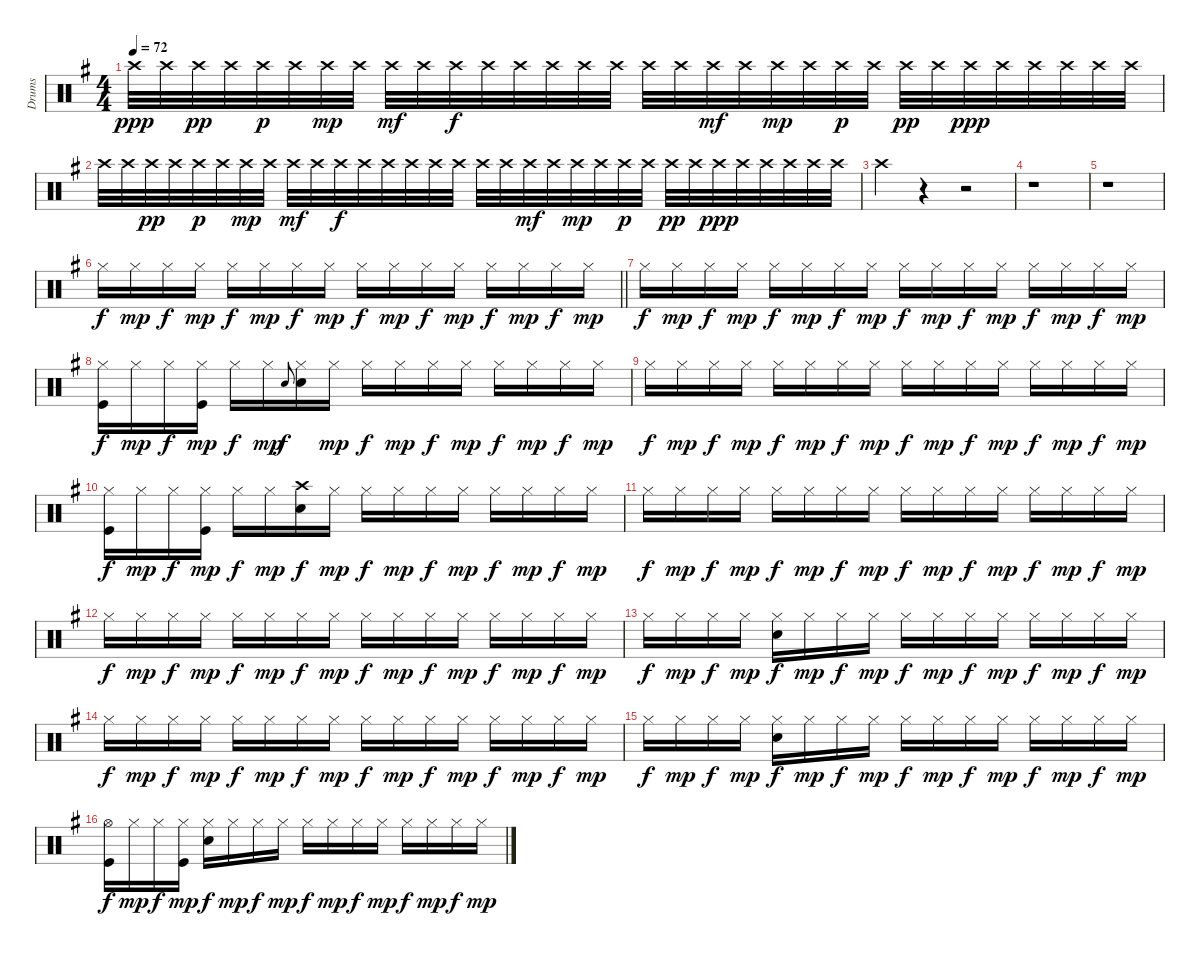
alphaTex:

\track ("Drums" "Drums") {instrument percussion}
\staff {score}
\articulation defaults
\ts (4 4)
\tempo 72
\clef neutral
\ks eminor "Crash high (hit)".32{dy ppp} "Crash high (hit)".32 "Crash high (hit)".32{dy pp} "Crash high (hit)".32 "Crash high (hit)".32{dy p} "Crash high (hit)".32 "Crash high (hit)".32{dy mp} "Crash high (hit)".32 "Crash high (hit)".32{dy mf} "Crash high (hit)".32 "Crash high (hit)".32{dy f} "Crash high (hit)".32 "Crash high (hit)".32 "Crash high (hit)".32 "Crash high (hit)".32 "Crash high (hit)".32 "Crash high (hit)".32 "Crash high (hit)".32 "Crash high (hit)".32{dy mf} "Crash high (hit)".32 "Crash high (hit)".32{dy mp} "Crash high (hit)".32 "Crash high (hit)".32{dy p} "Crash high (hit)".32 "Crash high (hit)".32{dy pp} "Crash high (hit)".32 "Crash high (hit)".32{dy ppp} "Crash high (hit)".32 "Crash high (hit)".32 "Crash high (hit)".32 "Crash high (hit)".32 "Crash high (hit)".32
|
"Crash high (hit)".32 "Crash high (hit)".32 "Crash high (hit)".32{dy pp} "Crash high (hit)".32 "Crash high (hit)".32{dy p} "Crash high (hit)".32 "Crash high (hit)".32{dy mp} "Crash high (hit)".32 "Crash high (hit)".32{dy mf} "Crash high (hit)".32 "Crash high (hit)".32{dy f} "Crash high (hit)".32 "Crash high (hit)".32 "Crash high (hit)".32 "Crash high (hit)".32 "Crash high (hit)".32 "Crash high (hit)".32 "Crash high (hit)".32 "Crash high (hit)".32{dy mf} "Crash high (hit)".32 "Crash high (hit)".32{dy mp} "Crash high (hit)".32 "Crash high (hit)".32{dy p} "Crash high (hit)".32 "Crash high (hit)".32{dy pp} "Crash high (hit)".32 "Crash high (hit)".32{dy ppp} "Crash high (hit)".32 "Crash high (hit)".32 "Crash high (hit)".32 "Crash high (hit)".32 "Crash high (hit)".32 |
"Crash high (hit)".4 r.4 r.2 |
r.1 |
r.1 |
\barLineRight lightlight "Hi-Hat (closed)".16{dy f} "Hi-Hat (closed)".16{dy mp} "Hi-Hat (closed)".16{dy f} "Hi-Hat (closed)".16{dy mp} "Hi-Hat (closed)".16{dy f} "Hi-Hat (closed)".16{dy mp} "Hi-Hat (closed)".16{dy f} "Hi-Hat (closed)".16{dy mp} "Hi-Hat (closed)".16{dy f} "Hi-Hat (closed)".16{dy mp} "Hi-Hat (closed)".16{dy f} "Hi-Hat (closed)".16{dy mp} "Hi-Hat (closed)".16{dy f} "Hi-Hat (closed)".16{dy mp} "Hi-Hat (closed)".16{dy f} "Hi-Hat (closed)".16{dy mp}
|
"Hi-Hat (closed)".16{dy f} "Hi-Hat (closed)".16{dy mp} "Hi-Hat (closed)".16{dy f} "Hi-Hat (closed)".16{dy mp} "Hi-Hat (closed)".16{dy f} "Hi-Hat (closed)".16{dy mp} "Hi-Hat (closed)".16{dy f} "Hi-Hat (closed)".16{dy mp} "Hi-Hat (closed)".16{dy f} "Hi-Hat (closed)".16{dy mp} "Hi-Hat (closed)".16{dy f} "Hi-Hat (closed)".16{dy mp} "Hi-Hat (closed)".16{dy f} "Hi-Hat (closed)".16{dy mp} "Hi-Hat (closed)".16{dy f} "Hi-Hat (closed)".16{dy mp} |
("Hi-Hat (closed)" "Kick (hit)").16{dy f} "Hi-Hat (closed)".16{dy mp} "Hi-Hat (closed)".16{dy f} ("Hi-Hat (closed)" "Kick (hit)").16{dy mp} "Hi-Hat (closed)".16{dy f} "Hi-Hat (closed)".16{dy mp} "Snare (hit) 2".8{gr onbeat dy f} ("Hi-Hat (closed)" "Snare (hit) 2").16 "Hi-Hat (closed)".16{dy mp} "Hi-Hat (closed)".16{dy f} "Hi-Hat (closed)".16{dy mp} "Hi-Hat (closed)".16{dy f} "Hi-Hat (closed)".16{dy mp} "Hi-Hat (closed)".16{dy f} "Hi-Hat (closed)".16{dy mp} "Hi-Hat (closed)".16{dy f} "Hi-Hat (closed)".16{dy mp} |
"Hi-Hat (closed)".16{dy f} "Hi-Hat (closed)".16{dy mp} "Hi-Hat (closed)".16{dy f} "Hi-Hat (closed)".16{dy mp} "Hi-Hat (closed)".16{dy f} "Hi-Hat (closed)".16{dy mp} "Hi-Hat (closed)".16{dy f} "Hi-Hat (closed)".16{dy mp} "Hi-Hat (closed)".16{dy f} "Hi-Hat (closed)".16{dy mp} "Hi-Hat (closed)".16{dy f} "Hi-Hat (closed)".16{dy mp} "Hi-Hat (closed)".16{dy f} "Hi-Hat (closed)".16{dy mp} "Hi-Hat (closed)".16{dy f} "Hi-Hat (closed)".16{dy mp} |
("Hi-Hat (closed)" "Kick (hit)").16{dy f} "Hi-Hat (closed)".16{dy mp} "Hi-Hat (closed)".16{dy f} ("Hi-Hat (closed)" "Kick (hit)").16{dy mp} "Hi-Hat (closed)".16{dy f} "Hi-Hat (closed)".16{dy mp} ("Crash high (hit)" "Snare (hit) 2").16{dy f} "Hi-Hat (closed)".16{dy mp} "Hi-Hat (closed)".16{dy f} "Hi-Hat (closed)".16{dy mp} "Hi-Hat (closed)".16{dy f} "Hi-Hat (closed)".16{dy mp} "Hi-Hat (closed)".16{dy f} "Hi-Hat (closed)".16{dy mp} "Hi-Hat (closed)".16{dy f} "Hi-Hat (closed)".16{dy mp} |
"Hi-Hat (closed)".16{dy f} "Hi-Hat (closed)".16{dy mp} "Hi-Hat (closed)".16{dy f} "Hi-Hat (closed)".16{dy mp} "Hi-Hat (closed)".16{dy f} "Hi-Hat (closed)".16{dy mp} "Hi-Hat (closed)".16{dy f} "Hi-Hat (closed)".16{dy mp} "Hi-Hat (closed)".16{dy f} "Hi-Hat (closed)".16{dy mp} "Hi-Hat (closed)".16{dy f} "Hi-Hat (closed)".16{dy mp} "Hi-Hat (closed)".16{dy f} "Hi-Hat (closed)".16{dy mp} "Hi-Hat (closed)".16{dy f} "Hi-Hat (closed)".16{dy mp} |
"Hi-Hat (closed)".16{dy f} "Hi-Hat (closed)".16{dy mp} "Hi-Hat (closed)".16{dy f} "Hi-Hat (closed)".16{dy mp} "Hi-Hat (closed)".16{dy f} "Hi-Hat (closed)".16{dy mp} "Hi-Hat (closed)".16{dy f} "Hi-Hat (closed)".16{dy mp} "Hi-Hat (closed)".16{dy f} "Hi-Hat (closed)".16{dy mp} "Hi-Hat (closed)".16{dy f} "Hi-Hat (closed)".16{dy mp} "Hi-Hat (closed)".16{dy f} "Hi-Hat (closed)".16{dy mp} "Hi-Hat (closed)".16{dy f} "Hi-Hat (closed)".16{dy mp} |
"Hi-Hat (closed)".16{dy f} "Hi-Hat (closed)".16{dy mp} "Hi-Hat (closed)".16{dy f} "Hi-Hat (closed)".16{dy mp} ("Hi-Hat (closed)" "Snare (hit) 2").16{dy f} "Hi-Hat (closed)".16{dy mp} "Hi-Hat (closed)".16{dy f} "Hi-Hat (closed)".16{dy mp} "Hi-Hat (closed)".16{dy f} "Hi-Hat (closed)".16{dy mp} "Hi-Hat (closed)".16{dy f} "Hi-Hat (closed)".16{dy mp} "Hi-Hat (closed)".16{dy f} "Hi-Hat (closed)".16{dy mp} "Hi-Hat (closed)".16{dy f} "Hi-Hat (closed)".16{dy mp} |
"Hi-Hat (closed)".16{dy f} "Hi-Hat (closed)".16{dy mp} "Hi-Hat (closed)".16{dy f} "Hi-Hat (closed)".16{dy mp} "Hi-Hat (closed)".16{dy f} "Hi-Hat (closed)".16{dy mp} "Hi-Hat (closed)".16{dy f} "Hi-Hat (closed)".16{dy mp} "Hi-Hat (closed)".16{dy f} "Hi-Hat (closed)".16{dy mp} "Hi-Hat (closed)".16{dy f} "Hi-Hat (closed)".16{dy mp} "Hi-Hat (closed)".16{dy f} "Hi-Hat (closed)".16{dy mp} "Hi-Hat (closed)".16{dy f} "Hi-Hat (closed)".16{dy mp} |
"Hi-Hat (closed)".16{dy f} "Hi-Hat (closed)".16{dy mp} "Hi-Hat (closed)".16{dy f} "Hi-Hat (closed)".16{dy mp} ("Hi-Hat (closed)" "Snare (hit) 2").16{dy f} "Hi-Hat (closed)".16{dy mp} "Hi-Hat (closed)".16{dy f} "Hi-Hat (closed)".16{dy mp} "Hi-Hat (closed)".16{dy f} "Hi-Hat (closed)".16{dy mp} "Hi-Hat (closed)".16{dy f} "Hi-Hat (closed)".16{dy mp} "Hi-Hat (closed)".16{dy f} "Hi-Hat (closed)".16{dy mp} "Hi-Hat (closed)".16{dy f} "Hi-Hat (closed)".16{dy mp} |
("Hi-Hat (open)" "Kick (hit)").16{dy f} "Hi-Hat (closed)".16{dy mp} "Hi-Hat (closed)".16{dy f} ("Hi-Hat (closed)" "Kick (hit)").16{dy mp} ("Hi-Hat (closed)" "Snare (hit) 2").16{dy f} "Hi-Hat (closed)".16{dy mp} "Hi-Hat (closed)".16{dy f} "Hi-Hat (closed)".16{dy mp} "Hi-Hat (closed)".16{dy f} "Hi-Hat (closed)".16{dy mp} "Hi-Hat (closed)".16{dy f} "Hi-Hat (closed)".16{dy mp} "Hi-Hat (closed)".16{dy f} "Hi-Hat (closed)".16{dy mp} "Hi-Hat (closed)".16{dy f} "Hi-Hat (closed)".16{dy mp}
